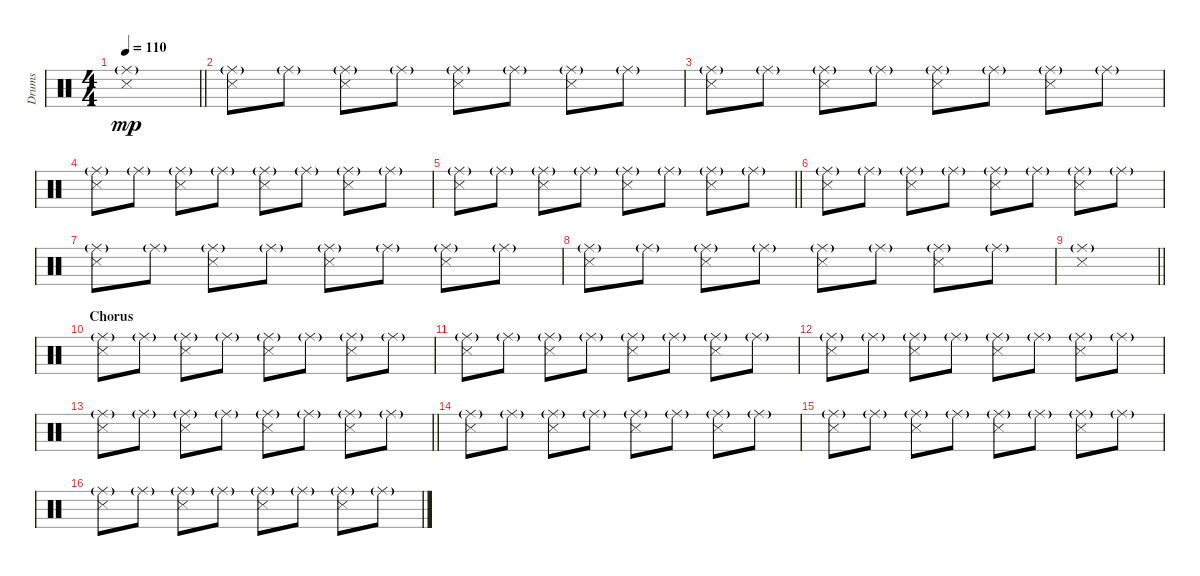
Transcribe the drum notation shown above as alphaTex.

\track ("Drums" "Drums") {instrument percussion}
\staff {score}
\articulation defaults
\ts (4 4)
\tempo 110
\clef neutral
\barLineRight lightlight
\ks c
("Snare (side stick) 3" "Ride (middle)"{g}).1{dy mp} |
("Snare (side stick) 3" "Ride (middle)"{g}).8 "Ride (middle)"{g}.8 ("Snare (side stick) 3" "Ride (middle)"{g}).8 "Ride (middle)"{g}.8 ("Snare (side stick) 3" "Ride (middle)"{g}).8 "Ride (middle)"{g}.8 ("Snare (side stick) 3" "Ride (middle)"{g}).8 "Ride (middle)"{g}.8 |
("Snare (side stick) 3" "Ride (middle)"{g}).8 "Ride (middle)"{g}.8 ("Snare (side stick) 3" "Ride (middle)"{g}).8 "Ride (middle)"{g}.8 ("Snare (side stick) 3" "Ride (middle)"{g}).8 "Ride (middle)"{g}.8 ("Snare (side stick) 3" "Ride (middle)"{g}).8 "Ride (middle)"{g}.8 |
("Snare (side stick) 3" "Ride (middle)"{g}).8 "Ride (middle)"{g}.8 ("Snare (side stick) 3" "Ride (middle)"{g}).8 "Ride (middle)"{g}.8 ("Snare (side stick) 3" "Ride (middle)"{g}).8 "Ride (middle)"{g}.8 ("Snare (side stick) 3" "Ride (middle)"{g}).8 "Ride (middle)"{g}.8 |
\barLineRight lightlight
("Snare (side stick) 3" "Ride (middle)"{g}).8 "Ride (middle)"{g}.8 ("Snare (side stick) 3" "Ride (middle)"{g}).8 "Ride (middle)"{g}.8 ("Snare (side stick) 3" "Ride (middle)"{g}).8 "Ride (middle)"{g}.8 ("Snare (side stick) 3" "Ride (middle)"{g}).8 "Ride (middle)"{g}.8 |
("Snare (side stick) 3" "Ride (middle)"{g}).8 "Ride (middle)"{g}.8 ("Snare (side stick) 3" "Ride (middle)"{g}).8 "Ride (middle)"{g}.8 ("Snare (side stick) 3" "Ride (middle)"{g}).8 "Ride (middle)"{g}.8 ("Snare (side stick) 3" "Ride (middle)"{g}).8 "Ride (middle)"{g}.8 |
("Snare (side stick) 3" "Ride (middle)"{g}).8 "Ride (middle)"{g}.8 ("Snare (side stick) 3" "Ride (middle)"{g}).8 "Ride (middle)"{g}.8 ("Snare (side stick) 3" "Ride (middle)"{g}).8 "Ride (middle)"{g}.8 ("Snare (side stick) 3" "Ride (middle)"{g}).8 "Ride (middle)"{g}.8 |
("Snare (side stick) 3" "Ride (middle)"{g}).8 "Ride (middle)"{g}.8 ("Snare (side stick) 3" "Ride (middle)"{g}).8 "Ride (middle)"{g}.8 ("Snare (side stick) 3" "Ride (middle)"{g}).8 "Ride (middle)"{g}.8 ("Snare (side stick) 3" "Ride (middle)"{g}).8 "Ride (middle)"{g}.8 |
\barLineRight lightlight
("Snare (side stick) 3" "Ride (middle)"{g}).1 |
\section ("" "Chorus")
("Snare (side stick) 3" "Ride (middle)"{g}).8 "Ride (middle)"{g}.8 ("Snare (side stick) 3" "Ride (middle)"{g}).8 "Ride (middle)"{g}.8 ("Snare (side stick) 3" "Ride (middle)"{g}).8 "Ride (middle)"{g}.8 ("Snare (side stick) 3" "Ride (middle)"{g}).8 "Ride (middle)"{g}.8 |
("Snare (side stick) 3" "Ride (middle)"{g}).8 "Ride (middle)"{g}.8 ("Snare (side stick) 3" "Ride (middle)"{g}).8 "Ride (middle)"{g}.8 ("Snare (side stick) 3" "Ride (middle)"{g}).8 "Ride (middle)"{g}.8 ("Snare (side stick) 3" "Ride (middle)"{g}).8 "Ride (middle)"{g}.8 |
("Snare (side stick) 3" "Ride (middle)"{g}).8 "Ride (middle)"{g}.8 ("Snare (side stick) 3" "Ride (middle)"{g}).8 "Ride (middle)"{g}.8 ("Snare (side stick) 3" "Ride (middle)"{g}).8 "Ride (middle)"{g}.8 ("Snare (side stick) 3" "Ride (middle)"{g}).8 "Ride (middle)"{g}.8 |
\barLineRight lightlight
("Snare (side stick) 3" "Ride (middle)"{g}).8 "Ride (middle)"{g}.8 ("Snare (side stick) 3" "Ride (middle)"{g}).8 "Ride (middle)"{g}.8 ("Snare (side stick) 3" "Ride (middle)"{g}).8 "Ride (middle)"{g}.8 ("Snare (side stick) 3" "Ride (middle)"{g}).8 "Ride (middle)"{g}.8 |
("Snare (side stick) 3" "Ride (middle)"{g}).8 "Ride (middle)"{g}.8 ("Snare (side stick) 3" "Ride (middle)"{g}).8 "Ride (middle)"{g}.8 ("Snare (side stick) 3" "Ride (middle)"{g}).8 "Ride (middle)"{g}.8 ("Snare (side stick) 3" "Ride (middle)"{g}).8 "Ride (middle)"{g}.8 |
("Snare (side stick) 3" "Ride (middle)"{g}).8 "Ride (middle)"{g}.8 ("Snare (side stick) 3" "Ride (middle)"{g}).8 "Ride (middle)"{g}.8 ("Snare (side stick) 3" "Ride (middle)"{g}).8 "Ride (middle)"{g}.8 ("Snare (side stick) 3" "Ride (middle)"{g}).8 "Ride (middle)"{g}.8 |
("Snare (side stick) 3" "Ride (middle)"{g}).8 "Ride (middle)"{g}.8 ("Snare (side stick) 3" "Ride (middle)"{g}).8 "Ride (middle)"{g}.8 ("Snare (side stick) 3" "Ride (middle)"{g}).8 "Ride (middle)"{g}.8 ("Snare (side stick) 3" "Ride (middle)"{g}).8 "Ride (middle)"{g}.8
